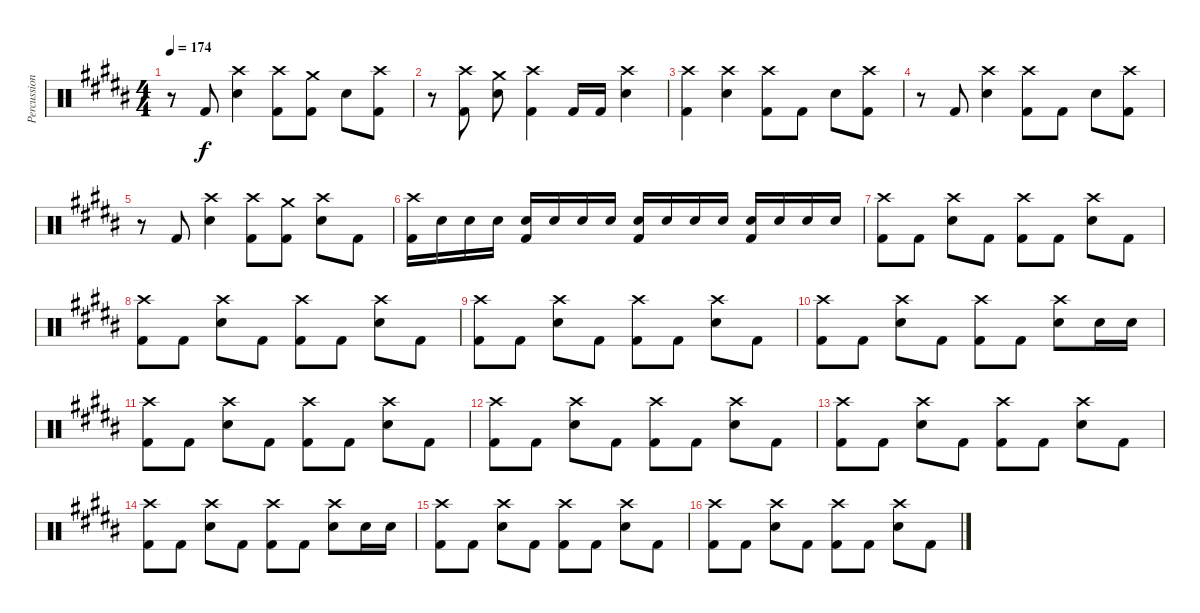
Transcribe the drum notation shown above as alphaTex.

\track ("Percussion" "Percussion") {instrument percussion}
\staff {score}
\articulation defaults
\ts (4 4)
\tempo 174
\clef neutral
\ks b
r.8{dy f} "Kick (hit) 2".8 ("Crash high (hit)" "Electric Snare (hit)").4 ("Crash high (hit)" "Kick (hit) 2").8 ("Crash medium (hit)" "Kick (hit) 2").8 "Electric Snare (hit)".8 ("Crash high (hit)" "Kick (hit) 2").8 |
r.8 ("Crash high (hit)" "Kick (hit) 2").8 ("Crash medium (hit)" "Electric Snare (hit)").8 ("Crash high (hit)" "Kick (hit) 2").4 "Kick (hit) 2".16 "Kick (hit) 2".16 ("Crash high (hit)" "Electric Snare (hit)").4 |
("Crash high (hit)" "Kick (hit) 2").4 ("Crash high (hit)" "Electric Snare (hit)").4 ("Crash high (hit)" "Kick (hit) 2").8 "Kick (hit) 2".8 "Electric Snare (hit)".8 ("Crash high (hit)" "Kick (hit) 2").8 |
r.8 "Kick (hit) 2".8 ("Crash high (hit)" "Electric Snare (hit)").4 ("Crash high (hit)" "Kick (hit) 2").8 "Kick (hit) 2".8 "Electric Snare (hit)".8 ("Crash high (hit)" "Kick (hit) 2").8 |
r.8 "Kick (hit) 2".8 ("Crash high (hit)" "Electric Snare (hit)").4 ("Crash high (hit)" "Kick (hit) 2").8 ("Crash medium (hit)" "Kick (hit) 2").8 ("Crash high (hit)" "Electric Snare (hit)").8 "Kick (hit) 2".8 |
("Crash high (hit)" "Kick (hit) 2").16 "Electric Snare (hit)".16 "Electric Snare (hit)".16 "Electric Snare (hit)".16 ("Electric Snare (hit)" "Kick (hit) 2").16 "Electric Snare (hit)".16 "Electric Snare (hit)".16 "Electric Snare (hit)".16 ("Electric Snare (hit)" "Kick (hit) 2").16 "Electric Snare (hit)".16 "Electric Snare (hit)".16 "Electric Snare (hit)".16 ("Electric Snare (hit)" "Kick (hit) 2").16 "Electric Snare (hit)".16 "Electric Snare (hit)".16 "Electric Snare (hit)".16 |
("Crash high (hit)" "Kick (hit) 2").8 "Kick (hit) 2".8 ("Crash high (hit)" "Electric Snare (hit)").8 "Kick (hit) 2".8 ("Crash high (hit)" "Kick (hit) 2").8 "Kick (hit) 2".8 ("Crash high (hit)" "Electric Snare (hit)").8 "Kick (hit) 2".8 |
("Crash high (hit)" "Kick (hit) 2").8 "Kick (hit) 2".8 ("Crash high (hit)" "Electric Snare (hit)").8 "Kick (hit) 2".8 ("Crash high (hit)" "Kick (hit) 2").8 "Kick (hit) 2".8 ("Crash high (hit)" "Electric Snare (hit)").8 "Kick (hit) 2".8 |
("Crash high (hit)" "Kick (hit) 2").8 "Kick (hit) 2".8 ("Crash high (hit)" "Electric Snare (hit)").8 "Kick (hit) 2".8 ("Crash high (hit)" "Kick (hit) 2").8 "Kick (hit) 2".8 ("Crash high (hit)" "Electric Snare (hit)").8 "Kick (hit) 2".8 |
("Crash high (hit)" "Kick (hit) 2").8 "Kick (hit) 2".8 ("Crash high (hit)" "Electric Snare (hit)").8 "Kick (hit) 2".8 ("Crash high (hit)" "Kick (hit) 2").8 "Kick (hit) 2".8 ("Crash high (hit)" "Electric Snare (hit)").8 "Electric Snare (hit)".16 "Electric Snare (hit)".16 |
("Crash high (hit)" "Kick (hit) 2").8 "Kick (hit) 2".8 ("Crash high (hit)" "Electric Snare (hit)").8 "Kick (hit) 2".8 ("Crash high (hit)" "Kick (hit) 2").8 "Kick (hit) 2".8 ("Crash high (hit)" "Electric Snare (hit)").8 "Kick (hit) 2".8 |
("Crash high (hit)" "Kick (hit) 2").8 "Kick (hit) 2".8 ("Crash high (hit)" "Electric Snare (hit)").8 "Kick (hit) 2".8 ("Crash high (hit)" "Kick (hit) 2").8 "Kick (hit) 2".8 ("Crash high (hit)" "Electric Snare (hit)").8 "Kick (hit) 2".8 |
("Crash high (hit)" "Kick (hit) 2").8 "Kick (hit) 2".8 ("Crash high (hit)" "Electric Snare (hit)").8 "Kick (hit) 2".8 ("Crash high (hit)" "Kick (hit) 2").8 "Kick (hit) 2".8 ("Crash high (hit)" "Electric Snare (hit)").8 "Kick (hit) 2".8 |
("Crash high (hit)" "Kick (hit) 2").8 "Kick (hit) 2".8 ("Crash high (hit)" "Electric Snare (hit)").8 "Kick (hit) 2".8 ("Crash high (hit)" "Kick (hit) 2").8 "Kick (hit) 2".8 ("Crash high (hit)" "Electric Snare (hit)").8 "Electric Snare (hit)".16 "Electric Snare (hit)".16 |
("Crash high (hit)" "Kick (hit) 2").8 "Kick (hit) 2".8 ("Crash high (hit)" "Electric Snare (hit)").8 "Kick (hit) 2".8 ("Crash high (hit)" "Kick (hit) 2").8 "Kick (hit) 2".8 ("Crash high (hit)" "Electric Snare (hit)").8 "Kick (hit) 2".8 |
("Crash high (hit)" "Kick (hit) 2").8 "Kick (hit) 2".8 ("Crash high (hit)" "Electric Snare (hit)").8 "Kick (hit) 2".8 ("Crash high (hit)" "Kick (hit) 2").8 "Kick (hit) 2".8 ("Crash high (hit)" "Electric Snare (hit)").8 "Kick (hit) 2".8
